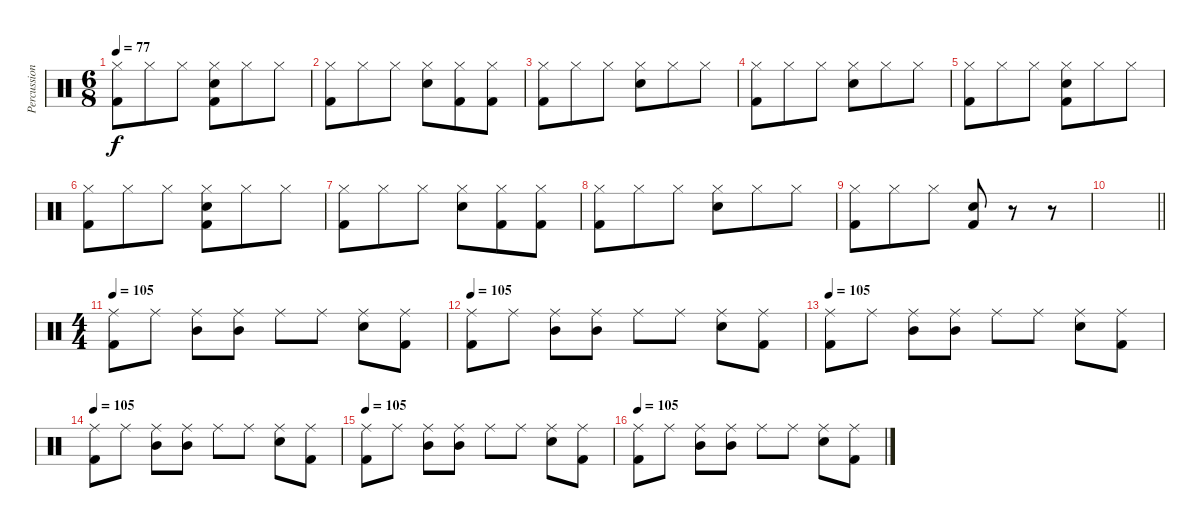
\track ("Percussion" "Percussion") {instrument percussion}
\staff {score}
\articulation defaults
\ts (6 8)
\tempo 77
\clef neutral
\ks c
("Hi-Hat (closed)" "Kick (hit) 2").8{dy f} "Hi-Hat (closed)".8 "Hi-Hat (closed)".8 ("Hi-Hat (closed)" "Snare (hit) 2" "Kick (hit) 2").8 "Hi-Hat (closed)".8 "Hi-Hat (closed)".8 |
("Hi-Hat (closed)" "Kick (hit) 2").8 "Hi-Hat (closed)".8 "Hi-Hat (closed)".8 ("Hi-Hat (closed)" "Snare (hit) 2").8 ("Hi-Hat (closed)" "Kick (hit) 2").8 ("Hi-Hat (closed)" "Kick (hit) 2").8 |
("Hi-Hat (closed)" "Kick (hit) 2").8 "Hi-Hat (closed)".8 "Hi-Hat (closed)".8 ("Hi-Hat (closed)" "Snare (hit) 2").8 "Hi-Hat (closed)".8 "Hi-Hat (closed)".8 |
("Hi-Hat (closed)" "Kick (hit) 2").8 "Hi-Hat (closed)".8 "Hi-Hat (closed)".8 ("Hi-Hat (closed)" "Snare (hit) 2").8 "Hi-Hat (closed)".8 "Hi-Hat (closed)".8 |
("Hi-Hat (closed)" "Kick (hit) 2").8 "Hi-Hat (closed)".8 "Hi-Hat (closed)".8 ("Hi-Hat (closed)" "Snare (hit) 2" "Kick (hit) 2").8 "Hi-Hat (closed)".8 "Hi-Hat (closed)".8 |
("Hi-Hat (closed)" "Kick (hit) 2").8 "Hi-Hat (closed)".8 "Hi-Hat (closed)".8 ("Hi-Hat (closed)" "Snare (hit) 2" "Kick (hit) 2").8 "Hi-Hat (closed)".8 "Hi-Hat (closed)".8 |
("Hi-Hat (closed)" "Kick (hit) 2").8 "Hi-Hat (closed)".8 "Hi-Hat (closed)".8 ("Hi-Hat (closed)" "Snare (hit) 2").8 ("Hi-Hat (closed)" "Kick (hit) 2").8 ("Hi-Hat (closed)" "Kick (hit) 2").8 |
("Hi-Hat (closed)" "Kick (hit) 2").8 "Hi-Hat (closed)".8 "Hi-Hat (closed)".8 ("Hi-Hat (closed)" "Snare (hit) 2").8 "Hi-Hat (closed)".8 "Hi-Hat (closed)".8 |
("Hi-Hat (closed)" "Kick (hit) 2").8 "Hi-Hat (closed)".8 "Hi-Hat (closed)".8 ("Snare (hit) 2" "Kick (hit) 2").8 r.8 r.8 |
\barLineRight lightlight
|
\ts (4 4)
\tempo 105
("Ride (middle)" "Kick (hit) 2").8 "Ride (middle)".8 ("Ride (middle)" "Mid Tom (hit)").8 ("Ride (middle)" "Mid Tom (hit)").8 "Ride (middle)".8 "Ride (middle)".8 ("Ride (middle)" "Snare (hit) 2").8 ("Ride (middle)" "Kick (hit) 2").8 |
\tempo 105
("Ride (middle)" "Kick (hit) 2").8 "Ride (middle)".8 ("Ride (middle)" "Mid Tom (hit)").8 ("Ride (middle)" "Mid Tom (hit)").8 "Ride (middle)".8 "Ride (middle)".8 ("Ride (middle)" "Snare (hit) 2").8 ("Ride (middle)" "Kick (hit) 2").8 |
\tempo 105
("Ride (middle)" "Kick (hit) 2").8 "Ride (middle)".8 ("Ride (middle)" "Mid Tom (hit)").8 ("Ride (middle)" "Mid Tom (hit)").8 "Ride (middle)".8 "Ride (middle)".8 ("Ride (middle)" "Snare (hit) 2").8 ("Ride (middle)" "Kick (hit) 2").8 |
\tempo 105
("Ride (middle)" "Kick (hit) 2").8 "Ride (middle)".8 ("Ride (middle)" "Mid Tom (hit)").8 ("Ride (middle)" "Mid Tom (hit)").8 "Ride (middle)".8 "Ride (middle)".8 ("Ride (middle)" "Snare (hit) 2").8 ("Ride (middle)" "Kick (hit) 2").8 |
\tempo 105
("Ride (middle)" "Kick (hit) 2").8 "Ride (middle)".8 ("Ride (middle)" "Mid Tom (hit)").8 ("Ride (middle)" "Mid Tom (hit)").8 "Ride (middle)".8 "Ride (middle)".8 ("Ride (middle)" "Snare (hit) 2").8 ("Ride (middle)" "Kick (hit) 2").8 |
\tempo 105
("Ride (middle)" "Kick (hit) 2").8 "Ride (middle)".8 ("Ride (middle)" "Mid Tom (hit)").8 ("Ride (middle)" "Mid Tom (hit)").8 "Ride (middle)".8 "Ride (middle)".8 ("Ride (middle)" "Snare (hit) 2").8 ("Ride (middle)" "Kick (hit) 2").8
